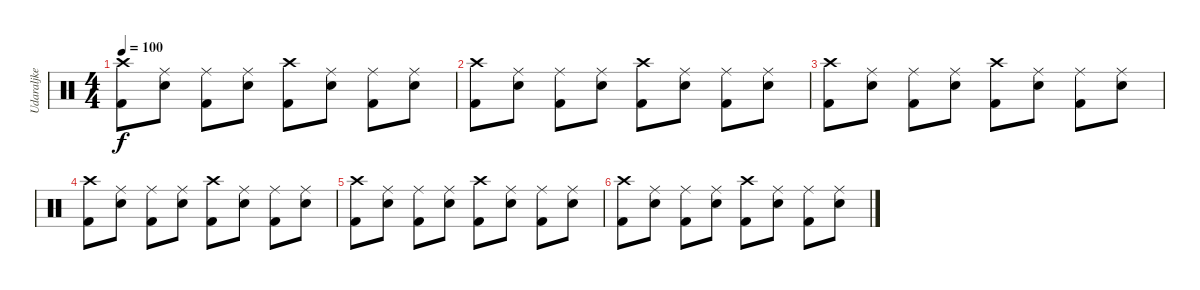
\track ("Udaraljke" "Udaraljke") {instrument percussion}
\staff {score}
\articulation defaults
\ts (4 4)
\tempo 100
\clef neutral
\ks c
("Kick (hit) 2" "Crash high (hit)").8{dy f} ("Snare (hit) 2" "Ride (middle)").8 ("Kick (hit) 2" "Ride (middle)").8 ("Snare (hit) 2" "Ride (middle)").8 ("Kick (hit) 2" "Crash high (hit)").8 ("Snare (hit) 2" "Ride (middle)").8 ("Kick (hit) 2" "Ride (middle)").8 ("Snare (hit) 2" "Ride (middle)").8 |
("Kick (hit) 2" "Crash high (hit)").8 ("Snare (hit) 2" "Ride (middle)").8 ("Kick (hit) 2" "Ride (middle)").8 ("Snare (hit) 2" "Ride (middle)").8 ("Kick (hit) 2" "Crash high (hit)").8 ("Snare (hit) 2" "Ride (middle)").8 ("Kick (hit) 2" "Ride (middle)").8 ("Snare (hit) 2" "Ride (middle)").8 |
("Kick (hit) 2" "Crash high (hit)").8 ("Snare (hit) 2" "Ride (middle)").8 ("Kick (hit) 2" "Ride (middle)").8 ("Snare (hit) 2" "Ride (middle)").8 ("Kick (hit) 2" "Crash high (hit)").8 ("Snare (hit) 2" "Ride (middle)").8 ("Kick (hit) 2" "Ride (middle)").8 ("Snare (hit) 2" "Ride (middle)").8 |
("Kick (hit) 2" "Crash high (hit)").8 ("Snare (hit) 2" "Ride (middle)").8 ("Kick (hit) 2" "Ride (middle)").8 ("Snare (hit) 2" "Ride (middle)").8 ("Kick (hit) 2" "Crash high (hit)").8 ("Snare (hit) 2" "Ride (middle)").8 ("Kick (hit) 2" "Ride (middle)").8 ("Snare (hit) 2" "Ride (middle)").8 |
("Kick (hit) 2" "Crash high (hit)").8 ("Snare (hit) 2" "Ride (middle)").8 ("Kick (hit) 2" "Ride (middle)").8 ("Snare (hit) 2" "Ride (middle)").8 ("Kick (hit) 2" "Crash high (hit)").8 ("Snare (hit) 2" "Ride (middle)").8 ("Kick (hit) 2" "Ride (middle)").8 ("Snare (hit) 2" "Ride (middle)").8 |
("Kick (hit) 2" "Crash high (hit)").8 ("Snare (hit) 2" "Ride (middle)").8 ("Kick (hit) 2" "Ride (middle)").8 ("Snare (hit) 2" "Ride (middle)").8 ("Kick (hit) 2" "Crash high (hit)").8 ("Snare (hit) 2" "Ride (middle)").8 ("Kick (hit) 2" "Ride (middle)").8 ("Snare (hit) 2" "Ride (middle)").8
